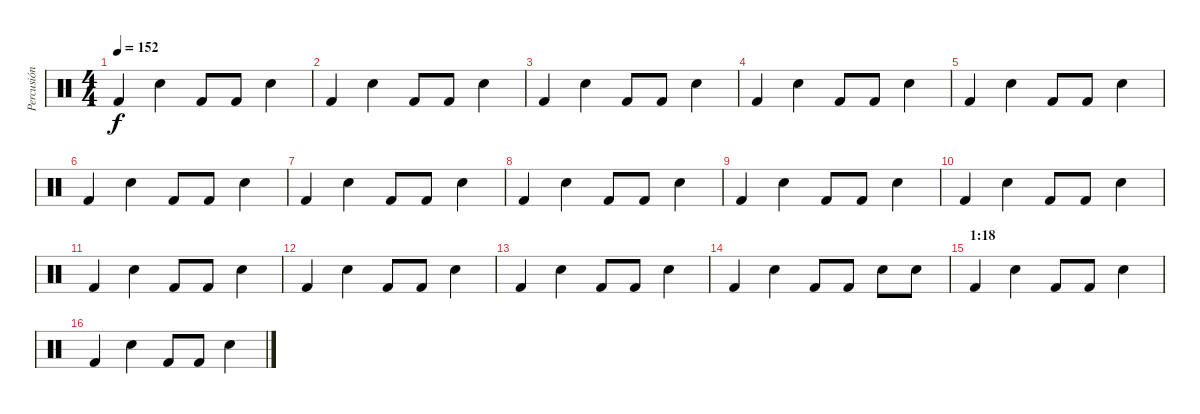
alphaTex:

\track ("Percusión" "Percusión") {instrument percussion}
\staff {score}
\articulation defaults
\ts (4 4)
\tempo 152
\clef neutral
\ks c "Kick (hit) 2".4{dy f} "Snare (hit) 2".4 "Kick (hit) 2".8 "Kick (hit) 2".8 "Snare (hit) 2".4
|
"Kick (hit) 2".4 "Snare (hit) 2".4 "Kick (hit) 2".8 "Kick (hit) 2".8 "Snare (hit) 2".4 |
"Kick (hit) 2".4 "Snare (hit) 2".4 "Kick (hit) 2".8 "Kick (hit) 2".8 "Snare (hit) 2".4 |
"Kick (hit) 2".4 "Snare (hit) 2".4 "Kick (hit) 2".8 "Kick (hit) 2".8 "Snare (hit) 2".4 |
"Kick (hit) 2".4 "Snare (hit) 2".4 "Kick (hit) 2".8 "Kick (hit) 2".8 "Snare (hit) 2".4 |
"Kick (hit) 2".4 "Snare (hit) 2".4 "Kick (hit) 2".8 "Kick (hit) 2".8 "Snare (hit) 2".4 |
"Kick (hit) 2".4 "Snare (hit) 2".4 "Kick (hit) 2".8 "Kick (hit) 2".8 "Snare (hit) 2".4 |
"Kick (hit) 2".4 "Snare (hit) 2".4 "Kick (hit) 2".8 "Kick (hit) 2".8 "Snare (hit) 2".4 |
"Kick (hit) 2".4 "Snare (hit) 2".4 "Kick (hit) 2".8 "Kick (hit) 2".8 "Snare (hit) 2".4 |
"Kick (hit) 2".4 "Snare (hit) 2".4 "Kick (hit) 2".8 "Kick (hit) 2".8 "Snare (hit) 2".4 |
"Kick (hit) 2".4 "Snare (hit) 2".4 "Kick (hit) 2".8 "Kick (hit) 2".8 "Snare (hit) 2".4 |
"Kick (hit) 2".4 "Snare (hit) 2".4 "Kick (hit) 2".8 "Kick (hit) 2".8 "Snare (hit) 2".4 |
"Kick (hit) 2".4 "Snare (hit) 2".4 "Kick (hit) 2".8 "Kick (hit) 2".8 "Snare (hit) 2".4 |
"Kick (hit) 2".4 "Snare (hit) 2".4 "Kick (hit) 2".8 "Kick (hit) 2".8 "Snare (hit) 2".8 "Snare (hit) 2".8 |
\section ("" "1:18")
"Kick (hit) 2".4 "Snare (hit) 2".4 "Kick (hit) 2".8 "Kick (hit) 2".8 "Snare (hit) 2".4 |
"Kick (hit) 2".4 "Snare (hit) 2".4 "Kick (hit) 2".8 "Kick (hit) 2".8 "Snare (hit) 2".4
